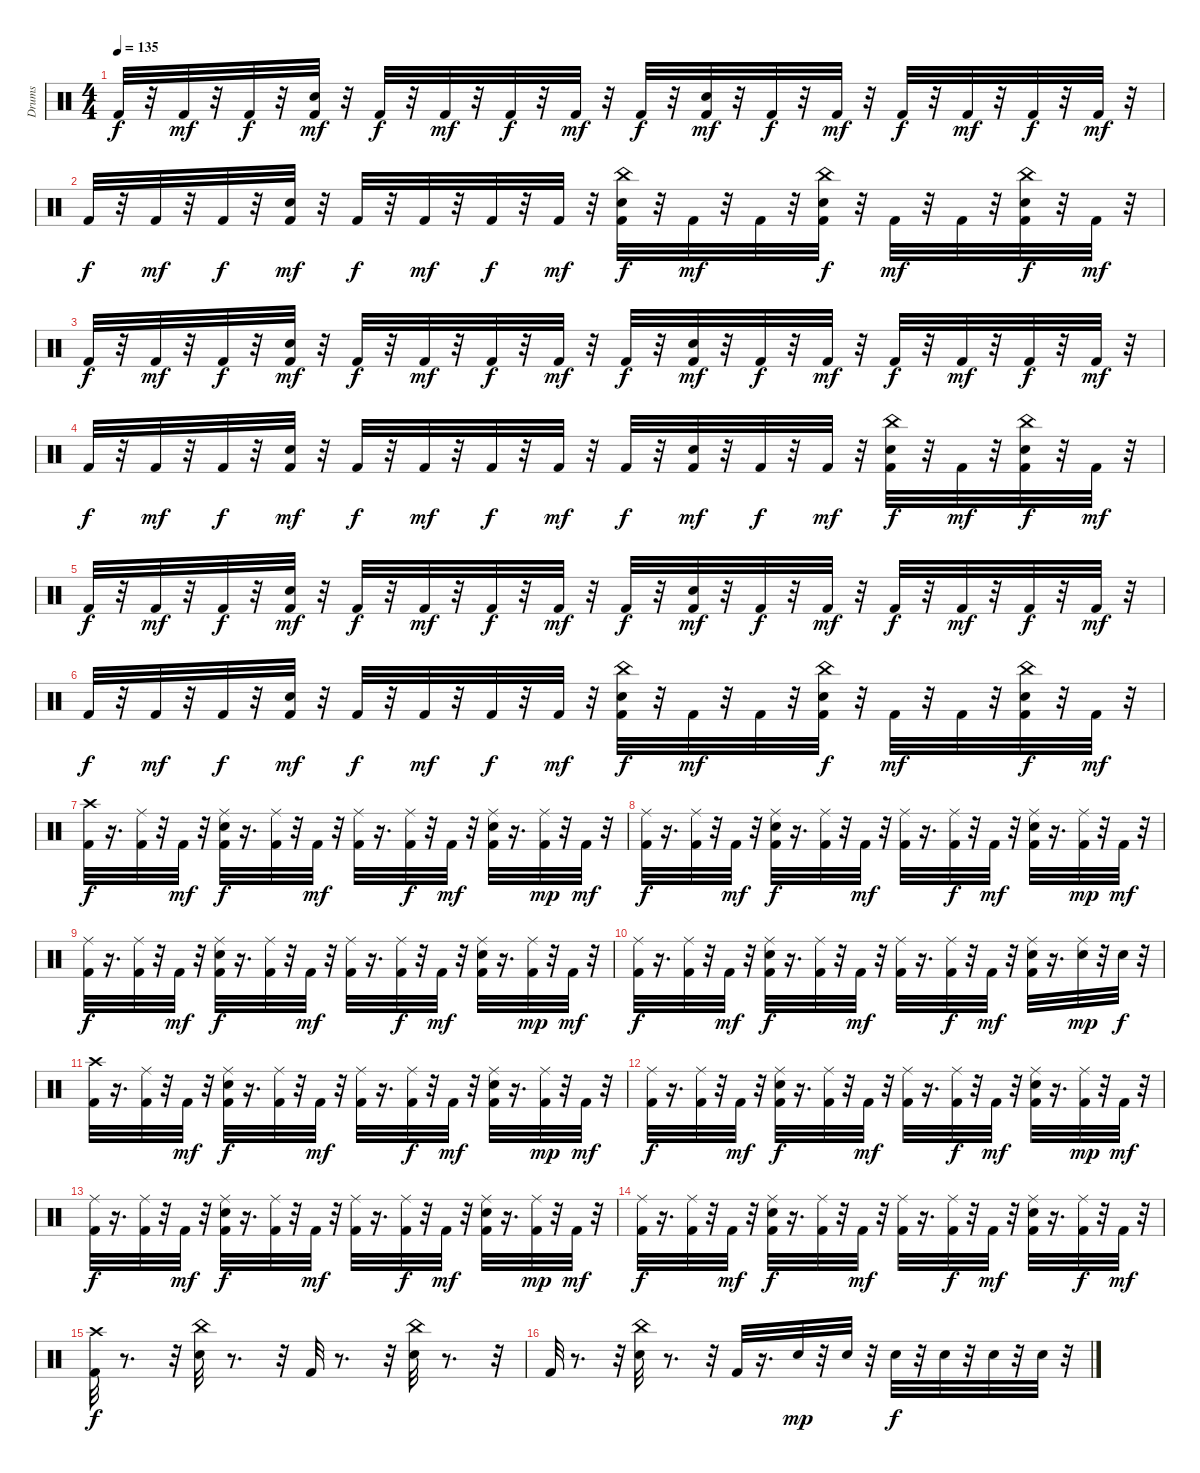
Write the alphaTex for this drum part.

\track ("Drums" "Drums") {instrument percussion}
\staff {score}
\articulation defaults
\ts (4 4)
\tempo 135
\clef neutral
\ks c "Kick (hit) 2".32{dy f}
r.32 "Kick (hit) 2".32{dy mf} r.32 "Kick (hit) 2".32{dy f} r.32 ("Snare (hit) 2" "Kick (hit) 2").32{dy mf} r.32 "Kick (hit) 2".32{dy f} r.32 "Kick (hit) 2".32{dy mf} r.32 "Kick (hit) 2".32{dy f} r.32 "Kick (hit) 2".32{dy mf} r.32 "Kick (hit) 2".32{dy f} r.32 ("Snare (hit) 2" "Kick (hit) 2").32{dy mf} r.32 "Kick (hit) 2".32{dy f} r.32 "Kick (hit) 2".32{dy mf} r.32 "Kick (hit) 2".32{dy f} r.32 "Kick (hit) 2".32{dy mf} r.32 "Kick (hit) 2".32{dy f} r.32 "Kick (hit) 2".32{dy mf} r.32 |
"Kick (hit) 2".32{dy f} r.32 "Kick (hit) 2".32{dy mf} r.32 "Kick (hit) 2".32{dy f} r.32 ("Snare (hit) 2" "Kick (hit) 2").32{dy mf} r.32 "Kick (hit) 2".32{dy f} r.32 "Kick (hit) 2".32{dy mf} r.32 "Kick (hit) 2".32{dy f} r.32 "Kick (hit) 2".32{dy mf} r.32 ("China (hit)" "Kick (hit) 2" "Snare (hit) 2").32{dy f} r.32 "Kick (hit) 2".32{dy mf} r.32 "Kick (hit) 2".32 r.32 ("China (hit)" "Kick (hit) 2" "Snare (hit) 2").32{dy f} r.32 "Kick (hit) 2".32{dy mf} r.32 "Kick (hit) 2".32 r.32 ("China (hit)" "Kick (hit) 2" "Snare (hit) 2").32{dy f} r.32 "Kick (hit) 2".32{dy mf} r.32 |
"Kick (hit) 2".32{dy f} r.32 "Kick (hit) 2".32{dy mf} r.32 "Kick (hit) 2".32{dy f} r.32 ("Snare (hit) 2" "Kick (hit) 2").32{dy mf} r.32 "Kick (hit) 2".32{dy f} r.32 "Kick (hit) 2".32{dy mf} r.32 "Kick (hit) 2".32{dy f} r.32 "Kick (hit) 2".32{dy mf} r.32 "Kick (hit) 2".32{dy f} r.32 ("Snare (hit) 2" "Kick (hit) 2").32{dy mf} r.32 "Kick (hit) 2".32{dy f} r.32 "Kick (hit) 2".32{dy mf} r.32 "Kick (hit) 2".32{dy f} r.32 "Kick (hit) 2".32{dy mf} r.32 "Kick (hit) 2".32{dy f} r.32 "Kick (hit) 2".32{dy mf} r.32 |
"Kick (hit) 2".32{dy f} r.32 "Kick (hit) 2".32{dy mf} r.32 "Kick (hit) 2".32{dy f} r.32 ("Snare (hit) 2" "Kick (hit) 2").32{dy mf} r.32 "Kick (hit) 2".32{dy f} r.32 "Kick (hit) 2".32{dy mf} r.32 "Kick (hit) 2".32{dy f} r.32 "Kick (hit) 2".32{dy mf} r.32 "Kick (hit) 2".32{dy f} r.32 ("Snare (hit) 2" "Kick (hit) 2").32{dy mf} r.32 "Kick (hit) 2".32{dy f} r.32 "Kick (hit) 2".32{dy mf} r.32 ("Kick (hit) 2" "China (hit)" "Snare (hit) 2").32{dy f} r.32 "Kick (hit) 2".32{dy mf} r.32 ("Kick (hit) 2" "China (hit)" "Snare (hit) 2").32{dy f} r.32 "Kick (hit) 2".32{dy mf} r.32 |
"Kick (hit) 2".32{dy f} r.32 "Kick (hit) 2".32{dy mf} r.32 "Kick (hit) 2".32{dy f} r.32 ("Snare (hit) 2" "Kick (hit) 2").32{dy mf} r.32 "Kick (hit) 2".32{dy f} r.32 "Kick (hit) 2".32{dy mf} r.32 "Kick (hit) 2".32{dy f} r.32 "Kick (hit) 2".32{dy mf} r.32 "Kick (hit) 2".32{dy f} r.32 ("Snare (hit) 2" "Kick (hit) 2").32{dy mf} r.32 "Kick (hit) 2".32{dy f} r.32 "Kick (hit) 2".32{dy mf} r.32 "Kick (hit) 2".32{dy f} r.32 "Kick (hit) 2".32{dy mf} r.32 "Kick (hit) 2".32{dy f} r.32 "Kick (hit) 2".32{dy mf} r.32 |
"Kick (hit) 2".32{dy f} r.32 "Kick (hit) 2".32{dy mf} r.32 "Kick (hit) 2".32{dy f} r.32 ("Snare (hit) 2" "Kick (hit) 2").32{dy mf} r.32 "Kick (hit) 2".32{dy f} r.32 "Kick (hit) 2".32{dy mf} r.32 "Kick (hit) 2".32{dy f} r.32 "Kick (hit) 2".32{dy mf} r.32 ("Kick (hit) 2" "Snare (hit) 2" "China (hit)").32{dy f} r.32 "Kick (hit) 2".32{dy mf} r.32 "Kick (hit) 2".32 r.32 ("Kick (hit) 2" "Snare (hit) 2" "China (hit)").32{dy f} r.32 "Kick (hit) 2".32{dy mf} r.32 "Kick (hit) 2".32 r.32 ("Kick (hit) 2" "Snare (hit) 2" "China (hit)").32{dy f} r.32 "Kick (hit) 2".32{dy mf} r.32 |
("Crash high (hit)" "Kick (hit) 2").32{dy f} r.16{d} ("Ride (middle)" "Kick (hit) 2").32 r.32 "Kick (hit) 2".32{dy mf} r.32 ("Kick (hit) 2" "Ride (middle)" "Snare (hit) 2").32{dy f} r.16{d} ("Ride (middle)" "Kick (hit) 2").32 r.32 "Kick (hit) 2".32{dy mf} r.32 ("Ride (middle)" "Kick (hit) 2").32 r.16{d} ("Ride (middle)" "Kick (hit) 2").32{dy f} r.32 "Kick (hit) 2".32{dy mf} r.32 ("Kick (hit) 2" "Ride (middle)" "Snare (hit) 2").32 r.16{d} ("Ride (middle)" "Kick (hit) 2").32{dy mp} r.32 "Kick (hit) 2".32{dy mf} r.32 |
("Ride (middle)" "Kick (hit) 2").32{dy f} r.16{d} ("Ride (middle)" "Kick (hit) 2").32 r.32 "Kick (hit) 2".32{dy mf} r.32 ("Kick (hit) 2" "Ride (middle)" "Snare (hit) 2").32{dy f} r.16{d} ("Ride (middle)" "Kick (hit) 2").32 r.32 "Kick (hit) 2".32{dy mf} r.32 ("Ride (middle)" "Kick (hit) 2").32 r.16{d} ("Ride (middle)" "Kick (hit) 2").32{dy f} r.32 "Kick (hit) 2".32{dy mf} r.32 ("Kick (hit) 2" "Ride (middle)" "Snare (hit) 2").32 r.16{d} ("Ride (middle)" "Kick (hit) 2").32{dy mp} r.32 "Kick (hit) 2".32{dy mf} r.32 |
("Ride (middle)" "Kick (hit) 2").32{dy f} r.16{d} ("Ride (middle)" "Kick (hit) 2").32 r.32 "Kick (hit) 2".32{dy mf} r.32 ("Kick (hit) 2" "Ride (middle)" "Snare (hit) 2").32{dy f} r.16{d} ("Ride (middle)" "Kick (hit) 2").32 r.32 "Kick (hit) 2".32{dy mf} r.32 ("Ride (middle)" "Kick (hit) 2").32 r.16{d} ("Ride (middle)" "Kick (hit) 2").32{dy f} r.32 "Kick (hit) 2".32{dy mf} r.32 ("Kick (hit) 2" "Ride (middle)" "Snare (hit) 2").32 r.16{d} ("Ride (middle)" "Kick (hit) 2").32{dy mp} r.32 "Kick (hit) 2".32{dy mf} r.32 |
("Ride (middle)" "Kick (hit) 2").32{dy f} r.16{d} ("Ride (middle)" "Kick (hit) 2").32 r.32 "Kick (hit) 2".32{dy mf} r.32 ("Kick (hit) 2" "Ride (middle)" "Snare (hit) 2").32{dy f} r.16{d} ("Ride (middle)" "Kick (hit) 2").32 r.32 "Kick (hit) 2".32{dy mf} r.32 ("Ride (middle)" "Kick (hit) 2").32 r.16{d} ("Ride (middle)" "Kick (hit) 2").32{dy f} r.32 "Kick (hit) 2".32{dy mf} r.32 ("Kick (hit) 2" "Ride (middle)" "Snare (hit) 2").32 r.16{d} ("Snare (hit) 2" "Ride (middle)").32{dy mp} r.32 "Snare (hit) 2".32{dy f} r.32 |
("Crash high (hit)" "Kick (hit) 2").32 r.16{d} ("Ride (middle)" "Kick (hit) 2").32 r.32 "Kick (hit) 2".32{dy mf} r.32 ("Kick (hit) 2" "Ride (middle)" "Snare (hit) 2").32{dy f} r.16{d} ("Ride (middle)" "Kick (hit) 2").32 r.32 "Kick (hit) 2".32{dy mf} r.32 ("Ride (middle)" "Kick (hit) 2").32 r.16{d} ("Ride (middle)" "Kick (hit) 2").32{dy f} r.32 "Kick (hit) 2".32{dy mf} r.32 ("Kick (hit) 2" "Ride (middle)" "Snare (hit) 2").32 r.16{d} ("Ride (middle)" "Kick (hit) 2").32{dy mp} r.32 "Kick (hit) 2".32{dy mf} r.32 |
("Ride (middle)" "Kick (hit) 2").32{dy f} r.16{d} ("Ride (middle)" "Kick (hit) 2").32 r.32 "Kick (hit) 2".32{dy mf} r.32 ("Kick (hit) 2" "Ride (middle)" "Snare (hit) 2").32{dy f} r.16{d} ("Ride (middle)" "Kick (hit) 2").32 r.32 "Kick (hit) 2".32{dy mf} r.32 ("Ride (middle)" "Kick (hit) 2").32 r.16{d} ("Ride (middle)" "Kick (hit) 2").32{dy f} r.32 "Kick (hit) 2".32{dy mf} r.32 ("Kick (hit) 2" "Ride (middle)" "Snare (hit) 2").32 r.16{d} ("Ride (middle)" "Kick (hit) 2").32{dy mp} r.32 "Kick (hit) 2".32{dy mf} r.32 |
("Ride (middle)" "Kick (hit) 2").32{dy f} r.16{d} ("Ride (middle)" "Kick (hit) 2").32 r.32 "Kick (hit) 2".32{dy mf} r.32 ("Kick (hit) 2" "Ride (middle)" "Snare (hit) 2").32{dy f} r.16{d} ("Ride (middle)" "Kick (hit) 2").32 r.32 "Kick (hit) 2".32{dy mf} r.32 ("Ride (middle)" "Kick (hit) 2").32 r.16{d} ("Ride (middle)" "Kick (hit) 2").32{dy f} r.32 "Kick (hit) 2".32{dy mf} r.32 ("Kick (hit) 2" "Ride (middle)" "Snare (hit) 2").32 r.16{d} ("Ride (middle)" "Kick (hit) 2").32{dy mp} r.32 "Kick (hit) 2".32{dy mf} r.32 |
("Ride (middle)" "Kick (hit) 2").32{dy f} r.16{d} ("Ride (middle)" "Kick (hit) 2").32 r.32 "Kick (hit) 2".32{dy mf} r.32 ("Kick (hit) 2" "Ride (middle)" "Snare (hit) 2").32{dy f} r.16{d} ("Ride (middle)" "Kick (hit) 2").32 r.32 "Kick (hit) 2".32{dy mf} r.32 ("Ride (middle)" "Kick (hit) 2").32 r.16{d} ("Ride (middle)" "Kick (hit) 2").32{dy f} r.32 "Kick (hit) 2".32{dy mf} r.32 ("Ride (middle)" "Snare (hit) 2" "Kick (hit) 2").32 r.16{d} ("Kick (hit) 2" "Ride (middle)").32{dy f} r.32 "Kick (hit) 2".32{dy mf} r.32 |
("Crash high (hit)" "Kick (hit) 2").32{dy f} r.8{d} r.32 ("China (hit)" "Snare (hit) 2").32 r.8{d} r.32 "Kick (hit) 2".32 r.8{d} r.32 ("China (hit)" "Snare (hit) 2").32 r.8{d} r.32 |
"Kick (hit) 2".32 r.8{d} r.32 ("China (hit)" "Snare (hit) 2").32 r.8{d} r.32 "Kick (hit) 2".32 r.16{d} "Snare (hit) 2".32{dy mp} r.32 "Snare (hit) 2".32 r.32 "Snare (hit) 2".32{dy f} r.32 "Snare (hit) 2".32 r.32 "Snare (hit) 2".32 r.32 "Snare (hit) 2".32 r.32
